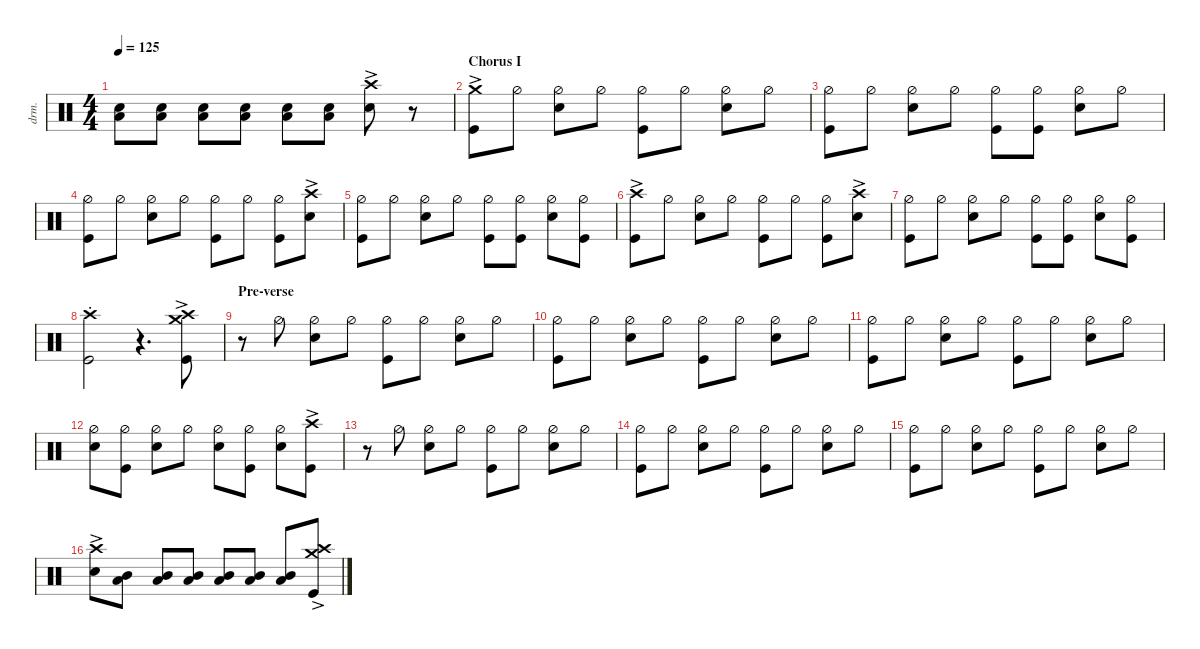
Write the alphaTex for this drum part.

\defaultSystemsLayout 4
\hideDynamics
\bracketExtendMode nobrackets
\track ("Drums" "drm.") {defaultSystemsLayout 4 multiBarRest instrument percussion}
\staff {score}
\articulation defaults
\ts (4 4)
\tempo 125
\clef neutral
\ks c
("Low Tom (hit)" "Snare (hit) 2").8{dy f beam Down} ("Low Tom (hit)" "Snare (hit) 2").8{beam Down} ("Low Tom (hit)" "Snare (hit) 2").8{beam Down} ("Low Tom (hit)" "Snare (hit) 2").8{beam Down} ("Low Tom (hit)" "Snare (hit) 2").8{beam Down} ("Low Tom (hit)" "Snare (hit) 2").8{beam Down} ("Snare (hit) 2" "Crash high (hit)"{ac}).8{beam Down} r.8{beam Down} |
\section ("" "Chorus I")
("Kick (hit)" "Crash medium (hit)"{ac}).8{beam Down} "Hi-Hat (half)".8{beam Down} ("Hi-Hat (half)" "Snare (hit) 2").8{beam Down} "Hi-Hat (half)".8{beam Down} ("Hi-Hat (half)" "Kick (hit)").8{beam Down} "Hi-Hat (half)".8{beam Down} ("Hi-Hat (half)" "Snare (hit) 2").8{beam Down} "Hi-Hat (half)".8{beam Down} |
("Hi-Hat (half)" "Kick (hit)").8{beam Down} "Hi-Hat (half)".8{beam Down} ("Hi-Hat (half)" "Snare (hit) 2").8{beam Down} "Hi-Hat (half)".8{beam Down} ("Hi-Hat (half)" "Kick (hit)").8{beam Down} ("Hi-Hat (half)" "Kick (hit)").8{beam Down} ("Hi-Hat (half)" "Snare (hit) 2").8{beam Down} "Hi-Hat (half)".8{beam Down} |
("Hi-Hat (half)" "Kick (hit)").8{beam Down} "Hi-Hat (half)".8{beam Down} ("Hi-Hat (half)" "Snare (hit) 2").8{beam Down} "Hi-Hat (half)".8{beam Down} ("Hi-Hat (half)" "Kick (hit)").8{beam Down} "Hi-Hat (half)".8{beam Down} ("Hi-Hat (half)" "Kick (hit)").8{beam Down} ("Snare (hit) 2" "Crash high (hit)"{ac}).8{beam Down} |
("Hi-Hat (half)" "Kick (hit)").8{beam Down} "Hi-Hat (half)".8{beam Down} ("Hi-Hat (half)" "Snare (hit) 2").8{beam Down} "Hi-Hat (half)".8{beam Down} ("Hi-Hat (half)" "Kick (hit)").8{beam Down} ("Hi-Hat (half)" "Kick (hit)").8{beam Down} ("Hi-Hat (half)" "Snare (hit) 2").8{beam Down} ("Hi-Hat (half)" "Kick (hit)").8{beam Down} |
("Kick (hit)" "Crash high (hit)"{ac}).8{beam Down} "Hi-Hat (half)".8{beam Down} ("Hi-Hat (half)" "Snare (hit) 2").8{beam Down} "Hi-Hat (half)".8{beam Down} ("Hi-Hat (half)" "Kick (hit)").8{beam Down} "Hi-Hat (half)".8{beam Down} ("Hi-Hat (half)" "Kick (hit)").8{beam Down} ("Snare (hit) 2" "Crash high (hit)"{ac}).8{beam Down} |
("Hi-Hat (half)" "Kick (hit)").8{beam Down} "Hi-Hat (half)".8{beam Down} ("Hi-Hat (half)" "Snare (hit) 2").8{beam Down} "Hi-Hat (half)".8{beam Down} ("Hi-Hat (half)" "Kick (hit)").8{beam Down} ("Hi-Hat (half)" "Kick (hit)").8{beam Down} ("Hi-Hat (half)" "Snare (hit) 2").8{beam Down} ("Hi-Hat (half)" "Kick (hit)").8{beam Down} |
("Kick (hit)" "Crash high (hit)"{st}).2{beam Down} r.4{d beam Down} ("Kick (hit)" "Crash high (hit)"{ac} "Crash medium (hit)"{ac}).8{beam Down} |
\section ("" "Pre-verse")
r.8{beam Down} "Hi-Hat (half)".8{beam Down} ("Snare (hit) 2" "Hi-Hat (half)").8{beam Down} "Hi-Hat (half)".8{beam Down} ("Hi-Hat (half)" "Kick (hit)").8{beam Down} "Hi-Hat (half)".8{beam Down} ("Hi-Hat (half)" "Snare (hit) 2").8{beam Down} "Hi-Hat (half)".8{beam Down} |
("Hi-Hat (half)" "Kick (hit)").8{beam Down} "Hi-Hat (half)".8{beam Down} ("Hi-Hat (half)" "Snare (hit) 2").8{beam Down} "Hi-Hat (half)".8{beam Down} ("Hi-Hat (half)" "Kick (hit)").8{beam Down} "Hi-Hat (half)".8{beam Down} ("Hi-Hat (half)" "Snare (hit) 2").8{beam Down} "Hi-Hat (half)".8{beam Down} |
("Hi-Hat (half)" "Kick (hit)").8{beam Down} "Hi-Hat (half)".8{beam Down} ("Hi-Hat (half)" "Snare (hit) 2").8{beam Down} "Hi-Hat (half)".8{beam Down} ("Hi-Hat (half)" "Kick (hit)").8{beam Down} "Hi-Hat (half)".8{beam Down} ("Hi-Hat (half)" "Snare (hit) 2").8{beam Down} "Hi-Hat (half)".8{beam Down} |
("Snare (hit) 2" "Hi-Hat (half)").8{beam Down} ("Kick (hit)" "Hi-Hat (half)").8{beam Down} ("Snare (hit) 2" "Hi-Hat (half)").8{beam Down} "Hi-Hat (half)".8{beam Down} ("Snare (hit) 2" "Hi-Hat (half)").8{beam Down} ("Kick (hit)" "Hi-Hat (half)").8{beam Down} ("Snare (hit) 2" "Hi-Hat (half)").8{beam Down} ("Crash high (hit)"{ac} "Kick (hit)").8{beam Down} |
r.8{beam Down} "Hi-Hat (half)".8{beam Down} ("Snare (hit) 2" "Hi-Hat (half)").8{beam Down} "Hi-Hat (half)".8{beam Down} ("Hi-Hat (half)" "Kick (hit)").8{beam Down} "Hi-Hat (half)".8{beam Down} ("Hi-Hat (half)" "Snare (hit) 2").8{beam Down} "Hi-Hat (half)".8{beam Down} |
("Hi-Hat (half)" "Kick (hit)").8{beam Down} "Hi-Hat (half)".8{beam Down} ("Hi-Hat (half)" "Snare (hit) 2").8{beam Down} "Hi-Hat (half)".8{beam Down} ("Hi-Hat (half)" "Kick (hit)").8{beam Down} "Hi-Hat (half)".8{beam Down} ("Hi-Hat (half)" "Snare (hit) 2").8{beam Down} "Hi-Hat (half)".8{beam Down} |
("Hi-Hat (half)" "Kick (hit)").8{beam Down} "Hi-Hat (half)".8{beam Down} ("Hi-Hat (half)" "Snare (hit) 2").8{beam Down} "Hi-Hat (half)".8{beam Down} ("Hi-Hat (half)" "Kick (hit)").8{beam Down} "Hi-Hat (half)".8{beam Down} ("Hi-Hat (half)" "Snare (hit) 2").8{beam Down} "Hi-Hat (half)".8{beam Down} |
("Crash high (hit)"{ac} "Snare (hit) 2").8{beam Down} ("Low Tom (hit)" "Mid Tom (hit)").8{beam Down} ("Low Tom (hit)" "Mid Tom (hit)").8{beam Up} ("Low Tom (hit)" "Mid Tom (hit)").8{beam Up} ("Low Tom (hit)" "Mid Tom (hit)").8{beam Up} ("Low Tom (hit)" "Mid Tom (hit)").8{beam Up} ("Low Tom (hit)" "Mid Tom (hit)").8{beam Up} ("Crash high (hit)"{ac} "Kick (hit)" "Crash medium (hit)"{ac}).8{beam Up}
